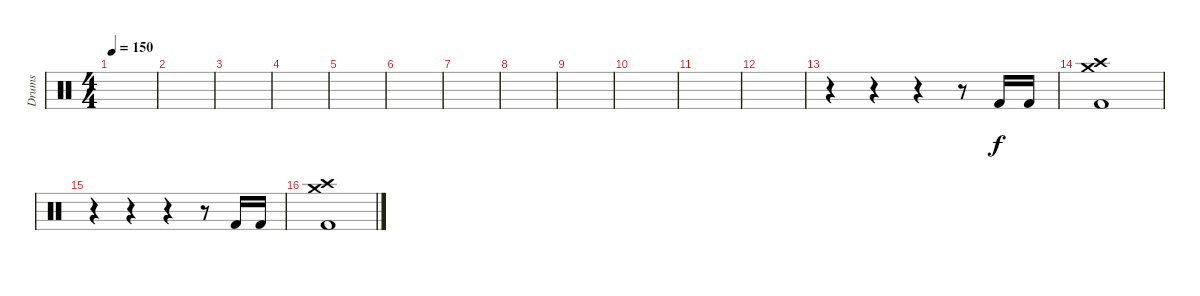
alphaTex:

\track ("Drums" "Drums") {instrument percussion}
\staff {score}
\articulation defaults
\ts (4 4)
\tempo 150
\clef neutral
\ks c
|
|
|
|
|
|
|
|
|
|
|
|
r.4 r.4 r.4 r.8 "Kick (hit) 2".16 "Kick (hit) 2".16 |
("Crash medium (hit)" "Crash high (hit)" "Kick (hit) 2").1 |
r.4 r.4 r.4 r.8 "Kick (hit) 2".16 "Kick (hit) 2".16 |
("Crash medium (hit)" "Crash high (hit)" "Kick (hit) 2").1
